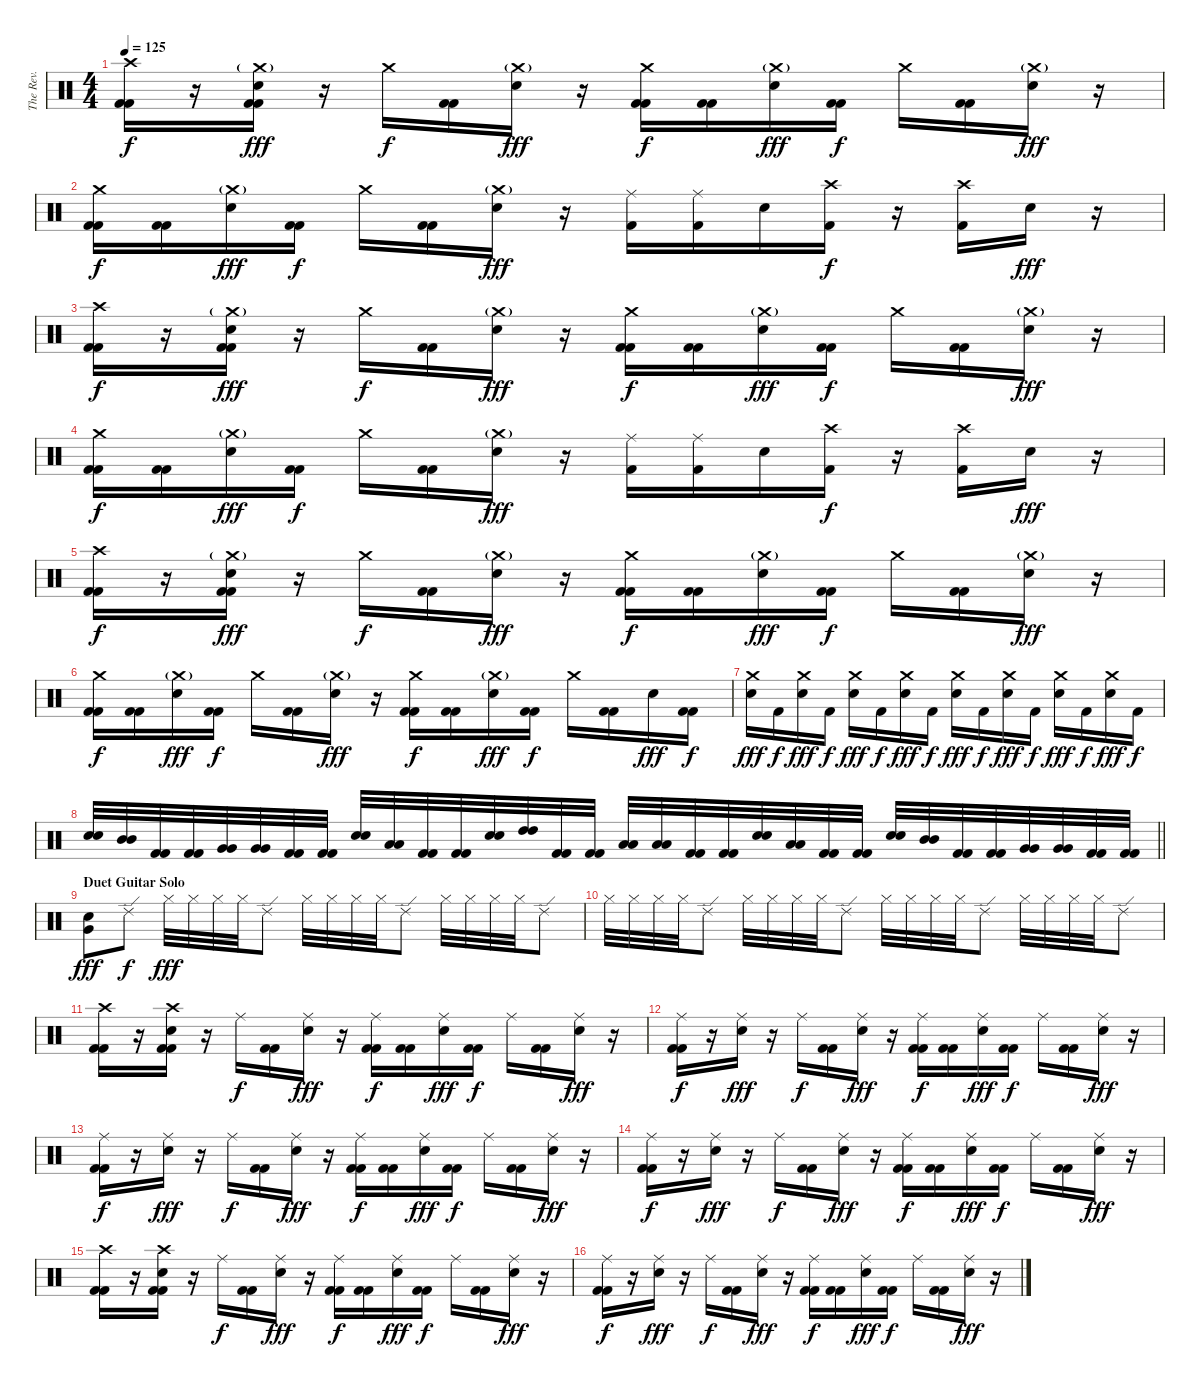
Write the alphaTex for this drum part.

\track ("The Rev." "The Rev.") {instrument percussion}
\staff {score}
\articulation defaults
\ts (4 4)
\tempo 125
\clef neutral
\ks c
("Crash high (hit)" "Kick (hit) 2" "Kick (hit) 2").16{dy f} r.16 ("Crash medium (hit)"{g} "Electric Snare (hit)" "Kick (hit) 2" "Kick (hit) 2").16{dy fff} r.16 "Crash medium (hit)".16{dy f} ("Kick (hit) 2" "Kick (hit) 2").16 ("Crash medium (hit)"{g} "Electric Snare (hit)").16{dy fff} r.16 ("Crash medium (hit)" "Kick (hit) 2" "Kick (hit) 2").16{dy f} ("Kick (hit) 2" "Kick (hit) 2").16 ("Crash medium (hit)"{g} "Electric Snare (hit)").16{dy fff} ("Kick (hit) 2" "Kick (hit) 2").16{dy f} "Crash medium (hit)".16 ("Kick (hit) 2" "Kick (hit) 2").16 ("Crash medium (hit)"{g} "Electric Snare (hit)").16{dy fff} r.16 |
("Crash medium (hit)" "Kick (hit) 2" "Kick (hit) 2").16{dy f} ("Kick (hit) 2" "Kick (hit) 2").16 ("Crash medium (hit)"{g} "Electric Snare (hit)").16{dy fff} ("Kick (hit) 2" "Kick (hit) 2").16{dy f} "Crash medium (hit)".16 ("Kick (hit) 2" "Kick (hit) 2").16 ("Crash medium (hit)"{g} "Electric Snare (hit)").16{dy fff} r.16 ("Ride (middle)" "Kick (hit) 2").16 ("Ride (middle)" "Kick (hit) 2").16 "Electric Snare (hit)".16 ("Crash high (hit)" "Kick (hit) 2").16{dy f} r.16 ("Crash high (hit)" "Kick (hit) 2").16 "Electric Snare (hit)".16{dy fff} r.16 |
("Crash high (hit)" "Kick (hit) 2" "Kick (hit) 2").16{dy f} r.16 ("Crash medium (hit)"{g} "Electric Snare (hit)" "Kick (hit) 2" "Kick (hit) 2").16{dy fff} r.16 "Crash medium (hit)".16{dy f} ("Kick (hit) 2" "Kick (hit) 2").16 ("Crash medium (hit)"{g} "Electric Snare (hit)").16{dy fff} r.16 ("Crash medium (hit)" "Kick (hit) 2" "Kick (hit) 2").16{dy f} ("Kick (hit) 2" "Kick (hit) 2").16 ("Crash medium (hit)"{g} "Electric Snare (hit)").16{dy fff} ("Kick (hit) 2" "Kick (hit) 2").16{dy f} "Crash medium (hit)".16 ("Kick (hit) 2" "Kick (hit) 2").16 ("Crash medium (hit)"{g} "Electric Snare (hit)").16{dy fff} r.16 |
("Crash medium (hit)" "Kick (hit) 2" "Kick (hit) 2").16{dy f} ("Kick (hit) 2" "Kick (hit) 2").16 ("Crash medium (hit)"{g} "Electric Snare (hit)").16{dy fff} ("Kick (hit) 2" "Kick (hit) 2").16{dy f} "Crash medium (hit)".16 ("Kick (hit) 2" "Kick (hit) 2").16 ("Crash medium (hit)"{g} "Electric Snare (hit)").16{dy fff} r.16 ("Ride (middle)" "Kick (hit) 2").16 ("Ride (middle)" "Kick (hit) 2").16 "Electric Snare (hit)".16 ("Crash high (hit)" "Kick (hit) 2").16{dy f} r.16 ("Crash high (hit)" "Kick (hit) 2").16 "Electric Snare (hit)".16{dy fff} r.16 |
("Crash high (hit)" "Kick (hit) 2" "Kick (hit) 2").16{dy f} r.16 ("Crash medium (hit)"{g} "Electric Snare (hit)" "Kick (hit) 2" "Kick (hit) 2").16{dy fff} r.16 "Crash medium (hit)".16{dy f} ("Kick (hit) 2" "Kick (hit) 2").16 ("Crash medium (hit)"{g} "Electric Snare (hit)").16{dy fff} r.16 ("Crash medium (hit)" "Kick (hit) 2" "Kick (hit) 2").16{dy f} ("Kick (hit) 2" "Kick (hit) 2").16 ("Crash medium (hit)"{g} "Electric Snare (hit)").16{dy fff} ("Kick (hit) 2" "Kick (hit) 2").16{dy f} "Crash medium (hit)".16 ("Kick (hit) 2" "Kick (hit) 2").16 ("Crash medium (hit)"{g} "Electric Snare (hit)").16{dy fff} r.16 |
("Crash medium (hit)" "Kick (hit) 2" "Kick (hit) 2").16{dy f} ("Kick (hit) 2" "Kick (hit) 2").16 ("Crash medium (hit)"{g} "Electric Snare (hit)").16{dy fff} ("Kick (hit) 2" "Kick (hit) 2").16{dy f} "Crash medium (hit)".16 ("Kick (hit) 2" "Kick (hit) 2").16 ("Crash medium (hit)"{g} "Electric Snare (hit)").16{dy fff} r.16 ("Crash medium (hit)" "Kick (hit) 2" "Kick (hit) 2").16{dy f} ("Kick (hit) 2" "Kick (hit) 2").16 ("Crash medium (hit)"{g} "Electric Snare (hit)").16{dy fff} ("Kick (hit) 2" "Kick (hit) 2").16{dy f} "Crash medium (hit)".16 ("Kick (hit) 2" "Kick (hit) 2").16 "Electric Snare (hit)".16{dy fff} ("Kick (hit) 2" "Kick (hit) 2").16{dy f} |
("Crash medium (hit)" "Electric Snare (hit)").16{dy fff} "Kick (hit) 2".16{dy f} ("Crash medium (hit)" "Electric Snare (hit)").16{dy fff} "Kick (hit) 2".16{dy f} ("Crash medium (hit)" "Electric Snare (hit)").16{dy fff} "Kick (hit) 2".16{dy f} ("Crash medium (hit)" "Electric Snare (hit)").16{dy fff} "Kick (hit) 2".16{dy f} ("Crash medium (hit)" "Electric Snare (hit)").16{dy fff} "Kick (hit) 2".16{dy f} ("Crash medium (hit)" "Electric Snare (hit)").16{dy fff} "Kick (hit) 2".16{dy f} ("Crash medium (hit)" "Electric Snare (hit)").16{dy fff} "Kick (hit) 2".16{dy f} ("Crash medium (hit)" "Electric Snare (hit)").16{dy fff} "Kick (hit) 2".16{dy f} |
\barLineRight lightlight
("Electric Snare (hit)" "Electric Snare (hit)").32 ("Mid Tom (hit)" "Mid Tom (hit)").32 ("Kick (hit) 2" "Kick (hit) 2").32 ("Kick (hit) 2" "Kick (hit) 2").32 ("Very Low Tom (hit)" "Very Low Tom (hit)").32 ("Very Low Tom (hit)" "Very Low Tom (hit)").32 ("Kick (hit) 2" "Kick (hit) 2").32 ("Kick (hit) 2" "Kick (hit) 2").32 ("Electric Snare (hit)" "Electric Snare (hit)").32 ("Low Tom (hit)" "Low Tom (hit)").32 ("Kick (hit) 2" "Kick (hit) 2").32 ("Kick (hit) 2" "Kick (hit) 2").32 ("Electric Snare (hit)" "Electric Snare (hit)").32 ("High Tom (hit)" "High Tom (hit)").32 ("Kick (hit) 2" "Kick (hit) 2").32 ("Kick (hit) 2" "Kick (hit) 2").32 ("Low Floor Tom (hit)" "Low Floor Tom (hit)").32 ("Low Floor Tom (hit)" "Low Floor Tom (hit)").32 ("Kick (hit) 2" "Kick (hit) 2").32 ("Kick (hit) 2" "Kick (hit) 2").32 ("Electric Snare (hit)" "Electric Snare (hit)").32 ("Low Tom (hit)" "Low Tom (hit)").32 ("Kick (hit) 2" "Kick (hit) 2").32 ("Kick (hit) 2" "Kick (hit) 2").32 ("Electric Snare (hit)" "Electric Snare (hit)").32 ("Mid Tom (hit)" "Mid Tom (hit)").32 ("Kick (hit) 2" "Kick (hit) 2").32 ("Kick (hit) 2" "Kick (hit) 2").32 ("Very Low Tom (hit)" "Very Low Tom (hit)").32 ("Very Low Tom (hit)" "Very Low Tom (hit)").32 ("Kick (hit) 2" "Kick (hit) 2").32 ("Kick (hit) 2" "Kick (hit) 2").32 |
\section ("" "Duet Guitar Solo")
("Electric Snare (hit)" "Very Low Tom (hit)").8{dy fff} "Ride (edge) 2".8{dy f} "Hi-Hat (closed)".32{dy fff} "Hi-Hat (closed)".32 "Hi-Hat (closed)".32 "Hi-Hat (closed)".32 "Ride (edge) 2".8 "Hi-Hat (closed)".32 "Hi-Hat (closed)".32 "Hi-Hat (closed)".32 "Hi-Hat (closed)".32 "Ride (edge) 2".8 "Hi-Hat (closed)".32 "Hi-Hat (closed)".32 "Hi-Hat (closed)".32 "Hi-Hat (closed)".32 "Ride (edge) 2".8 |
"Hi-Hat (closed)".32 "Hi-Hat (closed)".32 "Hi-Hat (closed)".32 "Hi-Hat (closed)".32 "Ride (edge) 2".8 "Hi-Hat (closed)".32 "Hi-Hat (closed)".32 "Hi-Hat (closed)".32 "Hi-Hat (closed)".32 "Ride (edge) 2".8 "Hi-Hat (closed)".32 "Hi-Hat (closed)".32 "Hi-Hat (closed)".32 "Hi-Hat (closed)".32 "Ride (edge) 2".8 "Hi-Hat (closed)".32 "Hi-Hat (closed)".32 "Hi-Hat (closed)".32 "Hi-Hat (closed)".32 "Ride (edge) 2".8 |
("Crash high (hit)" "Kick (hit) 2" "Kick (hit) 2").16 r.16 ("Crash high (hit)" "Electric Snare (hit)" "Kick (hit) 2" "Kick (hit) 2").16 r.16 "Ride (middle)".16{dy f} ("Kick (hit) 2" "Kick (hit) 2").16 ("Ride (middle)" "Electric Snare (hit)").16{dy fff} r.16 ("Ride (middle)" "Kick (hit) 2" "Kick (hit) 2").16{dy f} ("Kick (hit) 2" "Kick (hit) 2").16 ("Ride (middle)" "Electric Snare (hit)").16{dy fff} ("Kick (hit) 2" "Kick (hit) 2").16{dy f} "Ride (middle)".16 ("Kick (hit) 2" "Kick (hit) 2").16 ("Ride (middle)" "Electric Snare (hit)").16{dy fff} r.16 |
("Ride (middle)" "Kick (hit) 2" "Kick (hit) 2").16{dy f} r.16 ("Ride (middle)" "Electric Snare (hit)").16{dy fff} r.16 "Ride (middle)".16{dy f} ("Kick (hit) 2" "Kick (hit) 2").16 ("Ride (middle)" "Electric Snare (hit)").16{dy fff} r.16 ("Ride (middle)" "Kick (hit) 2" "Kick (hit) 2").16{dy f} ("Kick (hit) 2" "Kick (hit) 2").16 ("Ride (middle)" "Electric Snare (hit)").16{dy fff} ("Kick (hit) 2" "Kick (hit) 2").16{dy f} "Ride (middle)".16 ("Kick (hit) 2" "Kick (hit) 2").16 ("Ride (middle)" "Electric Snare (hit)").16{dy fff} r.16 |
("Ride (middle)" "Kick (hit) 2" "Kick (hit) 2").16{dy f} r.16 ("Ride (middle)" "Electric Snare (hit)").16{dy fff} r.16 "Ride (middle)".16{dy f} ("Kick (hit) 2" "Kick (hit) 2").16 ("Ride (middle)" "Electric Snare (hit)").16{dy fff} r.16 ("Ride (middle)" "Kick (hit) 2" "Kick (hit) 2").16{dy f} ("Kick (hit) 2" "Kick (hit) 2").16 ("Ride (middle)" "Electric Snare (hit)").16{dy fff} ("Kick (hit) 2" "Kick (hit) 2").16{dy f} "Ride (middle)".16 ("Kick (hit) 2" "Kick (hit) 2").16 ("Ride (middle)" "Electric Snare (hit)").16{dy fff} r.16 |
("Ride (middle)" "Kick (hit) 2" "Kick (hit) 2").16{dy f} r.16 ("Ride (middle)" "Electric Snare (hit)").16{dy fff} r.16 "Ride (middle)".16{dy f} ("Kick (hit) 2" "Kick (hit) 2").16 ("Ride (middle)" "Electric Snare (hit)").16{dy fff} r.16 ("Ride (middle)" "Kick (hit) 2" "Kick (hit) 2").16{dy f} ("Kick (hit) 2" "Kick (hit) 2").16 ("Ride (middle)" "Electric Snare (hit)").16{dy fff} ("Kick (hit) 2" "Kick (hit) 2").16{dy f} "Ride (middle)".16 ("Kick (hit) 2" "Kick (hit) 2").16 ("Ride (middle)" "Electric Snare (hit)").16{dy fff} r.16 |
("Crash high (hit)" "Kick (hit) 2" "Kick (hit) 2").16 r.16 ("Crash high (hit)" "Electric Snare (hit)" "Kick (hit) 2" "Kick (hit) 2").16 r.16 "Ride (middle)".16{dy f} ("Kick (hit) 2" "Kick (hit) 2").16 ("Ride (middle)" "Electric Snare (hit)").16{dy fff} r.16 ("Ride (middle)" "Kick (hit) 2" "Kick (hit) 2").16{dy f} ("Kick (hit) 2" "Kick (hit) 2").16 ("Ride (middle)" "Electric Snare (hit)").16{dy fff} ("Kick (hit) 2" "Kick (hit) 2").16{dy f} "Ride (middle)".16 ("Kick (hit) 2" "Kick (hit) 2").16 ("Ride (middle)" "Electric Snare (hit)").16{dy fff} r.16 |
("Ride (middle)" "Kick (hit) 2" "Kick (hit) 2").16{dy f} r.16 ("Ride (middle)" "Electric Snare (hit)").16{dy fff} r.16 "Ride (middle)".16{dy f} ("Kick (hit) 2" "Kick (hit) 2").16 ("Ride (middle)" "Electric Snare (hit)").16{dy fff} r.16 ("Ride (middle)" "Kick (hit) 2" "Kick (hit) 2").16{dy f} ("Kick (hit) 2" "Kick (hit) 2").16 ("Ride (middle)" "Electric Snare (hit)").16{dy fff} ("Kick (hit) 2" "Kick (hit) 2").16{dy f} "Ride (middle)".16 ("Kick (hit) 2" "Kick (hit) 2").16 ("Ride (middle)" "Electric Snare (hit)").16{dy fff} r.16
